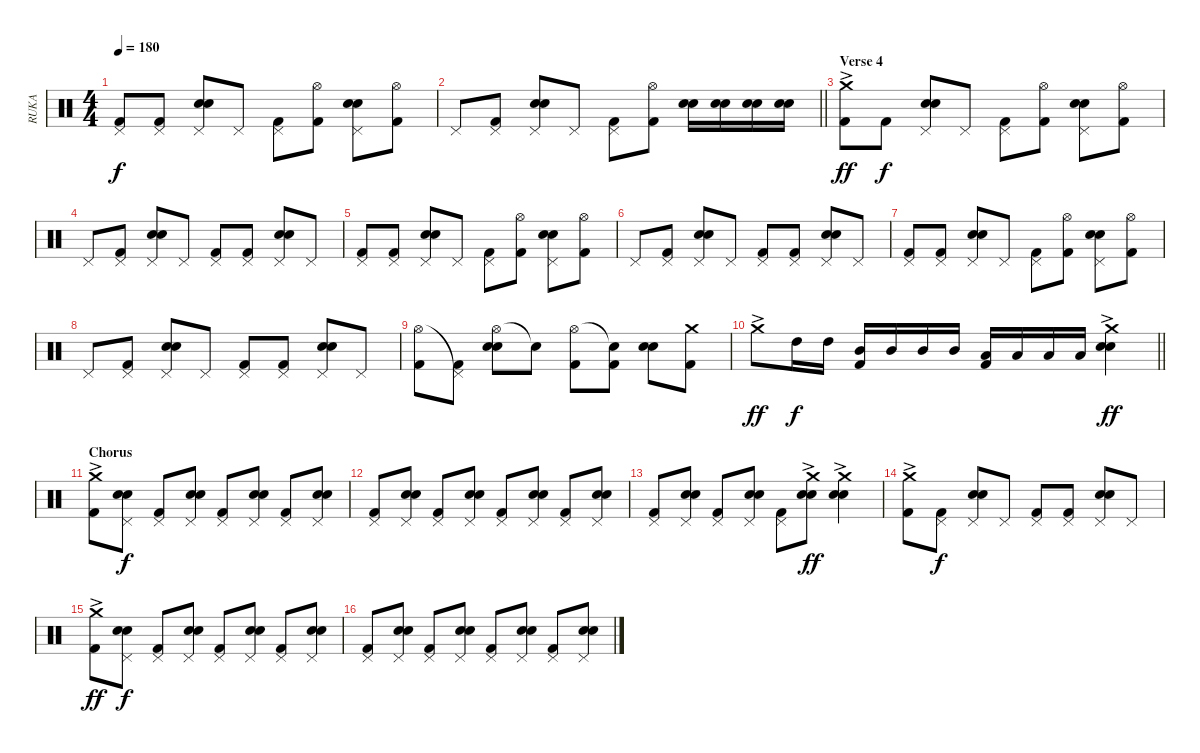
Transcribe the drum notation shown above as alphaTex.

\track ("RUKA" "RUKA") {instrument percussion}
\staff {score}
\articulation defaults
\ts (4 4)
\tempo 180
\clef neutral
\ks c
("Pedal Hi-Hat (hit)" "Kick (hit) 2").8{dy f} ("Pedal Hi-Hat (hit)" "Kick (hit) 2").8 ("Pedal Hi-Hat (hit)" "Snare (hit) 2" "Electric Snare (hit)").8 "Pedal Hi-Hat (hit)".8 ("Pedal Hi-Hat (hit)" "Kick (hit) 2").8 ("Hi-Hat (open)" "Kick (hit) 2").8 ("Pedal Hi-Hat (hit)" "Snare (hit) 2" "Electric Snare (hit)").8 ("Hi-Hat (open)" "Kick (hit) 2").8 |
\barLineRight lightlight "Pedal Hi-Hat (hit)".8
("Pedal Hi-Hat (hit)" "Kick (hit) 2").8 ("Pedal Hi-Hat (hit)" "Snare (hit) 2" "Electric Snare (hit)").8 "Pedal Hi-Hat (hit)".8 ("Pedal Hi-Hat (hit)" "Kick (hit) 2").8 ("Hi-Hat (open)" "Kick (hit) 2").8 ("Snare (hit) 2" "Electric Snare (hit)").16 ("Snare (hit) 2" "Electric Snare (hit)").16 ("Snare (hit) 2" "Electric Snare (hit)").16 ("Snare (hit) 2" "Electric Snare (hit)").16 |
\section ("" "Verse 4")
("Crash medium (hit)"{ac} "Kick (hit) 2").8{dy ff} "Kick (hit) 2".8{dy f} ("Pedal Hi-Hat (hit)" "Snare (hit) 2" "Electric Snare (hit)").8 "Pedal Hi-Hat (hit)".8 ("Pedal Hi-Hat (hit)" "Kick (hit) 2").8 ("Hi-Hat (open)" "Kick (hit) 2").8 ("Pedal Hi-Hat (hit)" "Snare (hit) 2" "Electric Snare (hit)").8 ("Hi-Hat (open)" "Kick (hit) 2").8 |
"Pedal Hi-Hat (hit)".8 ("Pedal Hi-Hat (hit)" "Kick (hit) 2").8 ("Pedal Hi-Hat (hit)" "Snare (hit) 2" "Electric Snare (hit)").8 "Pedal Hi-Hat (hit)".8 ("Pedal Hi-Hat (hit)" "Kick (hit) 2").8 ("Pedal Hi-Hat (hit)" "Kick (hit) 2").8 ("Pedal Hi-Hat (hit)" "Snare (hit) 2" "Electric Snare (hit)").8 "Pedal Hi-Hat (hit)".8 |
("Pedal Hi-Hat (hit)" "Kick (hit) 2").8 ("Pedal Hi-Hat (hit)" "Kick (hit) 2").8 ("Pedal Hi-Hat (hit)" "Snare (hit) 2" "Electric Snare (hit)").8 "Pedal Hi-Hat (hit)".8 ("Pedal Hi-Hat (hit)" "Kick (hit) 2").8 ("Hi-Hat (open)" "Kick (hit) 2").8 ("Pedal Hi-Hat (hit)" "Snare (hit) 2" "Electric Snare (hit)").8 ("Hi-Hat (open)" "Kick (hit) 2").8 |
"Pedal Hi-Hat (hit)".8 ("Pedal Hi-Hat (hit)" "Kick (hit) 2").8 ("Pedal Hi-Hat (hit)" "Snare (hit) 2" "Electric Snare (hit)").8 "Pedal Hi-Hat (hit)".8 ("Pedal Hi-Hat (hit)" "Kick (hit) 2").8 ("Pedal Hi-Hat (hit)" "Kick (hit) 2").8 ("Pedal Hi-Hat (hit)" "Snare (hit) 2" "Electric Snare (hit)").8 "Pedal Hi-Hat (hit)".8 |
("Pedal Hi-Hat (hit)" "Kick (hit) 2").8 ("Pedal Hi-Hat (hit)" "Kick (hit) 2").8 ("Pedal Hi-Hat (hit)" "Snare (hit) 2" "Electric Snare (hit)").8 "Pedal Hi-Hat (hit)".8 ("Pedal Hi-Hat (hit)" "Kick (hit) 2").8 ("Hi-Hat (open)" "Kick (hit) 2").8 ("Pedal Hi-Hat (hit)" "Snare (hit) 2" "Electric Snare (hit)").8 ("Hi-Hat (open)" "Kick (hit) 2").8 |
"Pedal Hi-Hat (hit)".8 ("Pedal Hi-Hat (hit)" "Kick (hit) 2").8 ("Pedal Hi-Hat (hit)" "Snare (hit) 2" "Electric Snare (hit)").8 "Pedal Hi-Hat (hit)".8 ("Pedal Hi-Hat (hit)" "Kick (hit) 2").8 ("Pedal Hi-Hat (hit)" "Kick (hit) 2").8 ("Pedal Hi-Hat (hit)" "Snare (hit) 2" "Electric Snare (hit)").8 "Pedal Hi-Hat (hit)".8 |
("Hi-Hat (open)" "Kick (hit) 2").8 ("Pedal Hi-Hat (hit)"{t} "Kick (hit) 2").8 ("Hi-Hat (open)" "Snare (hit) 2" "Electric Snare (hit)").8 "Snare (hit)"{t}.8 ("Hi-Hat (open)" "Kick (hit) 2").8 ("Snare (hit)"{t} "Kick (hit) 2").8 ("Snare (hit) 2" "Electric Snare (hit)").8 ("Crash medium (hit)" "Kick (hit) 2").8 |
\barLineRight lightlight "Crash medium (hit)"{ac}.8{dy ff} "High Tom (hit)".16{dy f} "High Tom (hit)".16
("Mid Tom (hit)" "Kick (hit) 2").16 "Mid Tom (hit)".16 "Mid Tom (hit)".16 "Mid Tom (hit)".16 ("Low Tom (hit)" "Kick (hit) 2").16 "Low Tom (hit)".16 "Low Tom (hit)".16 "Low Tom (hit)".16 ("Crash medium (hit)"{ac} "Snare (hit) 2" "Electric Snare (hit)").4{dy ff} |
\section ("" "Chorus")
("Crash medium (hit)"{ac} "Kick (hit) 2").8 ("Pedal Hi-Hat (hit)" "Snare (hit) 2" "Electric Snare (hit)").8{dy f} ("Pedal Hi-Hat (hit)" "Kick (hit) 2").8 ("Pedal Hi-Hat (hit)" "Snare (hit) 2" "Electric Snare (hit)").8 ("Pedal Hi-Hat (hit)" "Kick (hit) 2").8 ("Pedal Hi-Hat (hit)" "Snare (hit) 2" "Electric Snare (hit)").8 ("Pedal Hi-Hat (hit)" "Kick (hit) 2").8 ("Pedal Hi-Hat (hit)" "Snare (hit) 2" "Electric Snare (hit)").8 |
("Pedal Hi-Hat (hit)" "Kick (hit) 2").8 ("Pedal Hi-Hat (hit)" "Snare (hit) 2" "Electric Snare (hit)").8 ("Pedal Hi-Hat (hit)" "Kick (hit) 2").8 ("Pedal Hi-Hat (hit)" "Snare (hit) 2" "Electric Snare (hit)").8 ("Pedal Hi-Hat (hit)" "Kick (hit) 2").8 ("Pedal Hi-Hat (hit)" "Snare (hit) 2" "Electric Snare (hit)").8 ("Pedal Hi-Hat (hit)" "Kick (hit) 2").8 ("Pedal Hi-Hat (hit)" "Snare (hit) 2" "Electric Snare (hit)").8 |
("Pedal Hi-Hat (hit)" "Kick (hit) 2").8 ("Pedal Hi-Hat (hit)" "Snare (hit) 2" "Electric Snare (hit)").8 ("Pedal Hi-Hat (hit)" "Kick (hit) 2").8 ("Pedal Hi-Hat (hit)" "Snare (hit) 2" "Electric Snare (hit)").8 ("Pedal Hi-Hat (hit)" "Kick (hit) 2").8 ("Crash medium (hit)"{ac} "Snare (hit) 2" "Electric Snare (hit)").8{dy ff} ("Crash medium (hit)"{ac} "Snare (hit) 2" "Electric Snare (hit)").4 |
("Crash medium (hit)"{ac} "Kick (hit) 2").8 ("Pedal Hi-Hat (hit)" "Kick (hit) 2").8{dy f} ("Pedal Hi-Hat (hit)" "Snare (hit) 2" "Electric Snare (hit)").8 "Pedal Hi-Hat (hit)".8 ("Pedal Hi-Hat (hit)" "Kick (hit) 2").8 ("Pedal Hi-Hat (hit)" "Kick (hit) 2").8 ("Pedal Hi-Hat (hit)" "Snare (hit) 2" "Electric Snare (hit)").8 "Pedal Hi-Hat (hit)".8 |
("Crash medium (hit)"{ac} "Kick (hit) 2").8{dy ff} ("Pedal Hi-Hat (hit)" "Snare (hit) 2" "Electric Snare (hit)").8{dy f} ("Pedal Hi-Hat (hit)" "Kick (hit) 2").8 ("Pedal Hi-Hat (hit)" "Snare (hit) 2" "Electric Snare (hit)").8 ("Pedal Hi-Hat (hit)" "Kick (hit) 2").8 ("Pedal Hi-Hat (hit)" "Snare (hit) 2" "Electric Snare (hit)").8 ("Pedal Hi-Hat (hit)" "Kick (hit) 2").8 ("Pedal Hi-Hat (hit)" "Snare (hit) 2" "Electric Snare (hit)").8 |
("Pedal Hi-Hat (hit)" "Kick (hit) 2").8 ("Pedal Hi-Hat (hit)" "Snare (hit) 2" "Electric Snare (hit)").8 ("Pedal Hi-Hat (hit)" "Kick (hit) 2").8 ("Pedal Hi-Hat (hit)" "Snare (hit) 2" "Electric Snare (hit)").8 ("Pedal Hi-Hat (hit)" "Kick (hit) 2").8 ("Pedal Hi-Hat (hit)" "Snare (hit) 2" "Electric Snare (hit)").8 ("Pedal Hi-Hat (hit)" "Kick (hit) 2").8 ("Pedal Hi-Hat (hit)" "Snare (hit) 2" "Electric Snare (hit)").8
